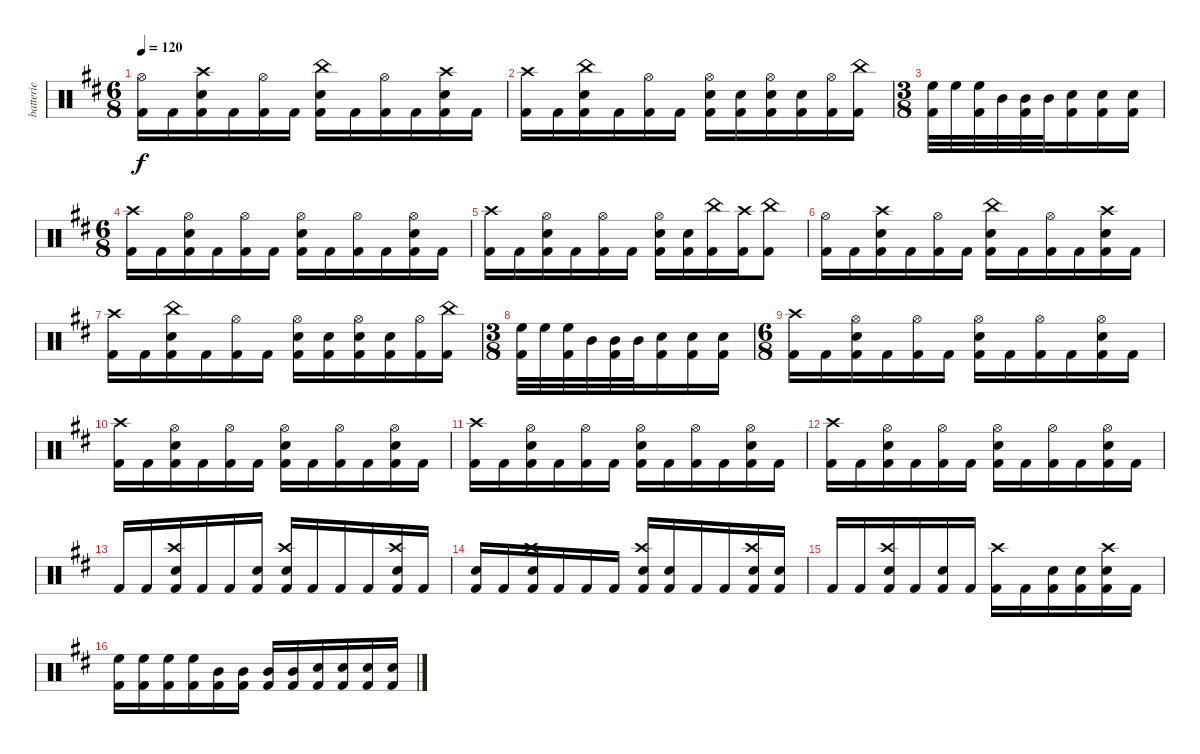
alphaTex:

\track ("batterie" "batterie") {instrument percussion}
\staff {score}
\articulation defaults
\ts (6 8)
\tempo 120
\clef neutral
\ks bminor
("Hi-Hat (open)" "Kick (hit) 2").16{dy f} "Kick (hit) 2".16 ("Crash high (hit)" "Snare (hit) 2" "Kick (hit) 2").16 "Kick (hit) 2".16 ("Hi-Hat (open)" "Kick (hit) 2").16 "Kick (hit) 2".16 ("China (hit)" "Snare (hit) 2" "Kick (hit) 2").16 "Kick (hit) 2".16 ("Hi-Hat (open)" "Kick (hit) 2").16 "Kick (hit) 2".16 ("Crash high (hit)" "Snare (hit) 2" "Kick (hit) 2").16 "Kick (hit) 2".16 |
("Crash high (hit)" "Kick (hit) 2").16 "Kick (hit) 2".16 ("China (hit)" "Snare (hit) 2" "Kick (hit) 2").16 "Kick (hit) 2".16 ("Hi-Hat (open)" "Kick (hit) 2").16 "Kick (hit) 2".16 ("Hi-Hat (open)" "Snare (hit) 2" "Kick (hit) 2").16 ("Snare (hit) 2" "Kick (hit) 2").16 ("Hi-Hat (open)" "Snare (hit) 2" "Kick (hit) 2").16 ("Snare (hit) 2" "Kick (hit) 2").16 ("Hi-Hat (open)" "Kick (hit) 2").16 ("China (hit)" "Kick (hit) 2").16 |
\ts (3 8)
("High Floor Tom (hit)" "Kick (hit) 2").32 "High Floor Tom (hit)".32 ("High Floor Tom (hit)" "Kick (hit) 2").32 "Mid Tom (hit)".32 ("Mid Tom (hit)" "Kick (hit) 2").32 "Mid Tom (hit)".32 ("Snare (hit) 2" "Kick (hit) 2").16 ("Snare (hit) 2" "Kick (hit) 2").16 ("Snare (hit) 2" "Kick (hit) 2").16 |
\ts (6 8)
("Crash high (hit)" "Kick (hit) 2").16 "Kick (hit) 2".16 ("Hi-Hat (open)" "Snare (hit) 2" "Kick (hit) 2").16 "Kick (hit) 2".16 ("Hi-Hat (open)" "Kick (hit) 2").16 "Kick (hit) 2".16 ("Hi-Hat (open)" "Snare (hit) 2" "Kick (hit) 2").16 "Kick (hit) 2".16 ("Hi-Hat (open)" "Kick (hit) 2").16 "Kick (hit) 2".16 ("Hi-Hat (open)" "Snare (hit) 2" "Kick (hit) 2").16 "Kick (hit) 2".16 |
("Crash high (hit)" "Kick (hit) 2").16 "Kick (hit) 2".16 ("Hi-Hat (open)" "Snare (hit) 2" "Kick (hit) 2").16 "Kick (hit) 2".16 ("Hi-Hat (open)" "Kick (hit) 2").16 "Kick (hit) 2".16 ("Hi-Hat (open)" "Snare (hit) 2" "Kick (hit) 2").16 ("Snare (hit) 2" "Kick (hit) 2").16 ("China (hit)" "Kick (hit) 2").16 ("Crash high (hit)" "Kick (hit) 2").16 ("China (hit)" "Kick (hit) 2").8 |
("Hi-Hat (open)" "Kick (hit) 2").16 "Kick (hit) 2".16 ("Crash high (hit)" "Snare (hit) 2" "Kick (hit) 2").16 "Kick (hit) 2".16 ("Hi-Hat (open)" "Kick (hit) 2").16 "Kick (hit) 2".16 ("China (hit)" "Snare (hit) 2" "Kick (hit) 2").16 "Kick (hit) 2".16 ("Hi-Hat (open)" "Kick (hit) 2").16 "Kick (hit) 2".16 ("Crash high (hit)" "Snare (hit) 2" "Kick (hit) 2").16 "Kick (hit) 2".16 |
("Crash high (hit)" "Kick (hit) 2").16 "Kick (hit) 2".16 ("China (hit)" "Snare (hit) 2" "Kick (hit) 2").16 "Kick (hit) 2".16 ("Hi-Hat (open)" "Kick (hit) 2").16 "Kick (hit) 2".16 ("Hi-Hat (open)" "Snare (hit) 2" "Kick (hit) 2").16 ("Snare (hit) 2" "Kick (hit) 2").16 ("Hi-Hat (open)" "Snare (hit) 2" "Kick (hit) 2").16 ("Snare (hit) 2" "Kick (hit) 2").16 ("Hi-Hat (open)" "Kick (hit) 2").16 ("China (hit)" "Kick (hit) 2").16 |
\ts (3 8)
("High Floor Tom (hit)" "Kick (hit) 2").32 "High Floor Tom (hit)".32 ("High Floor Tom (hit)" "Kick (hit) 2").32 "Mid Tom (hit)".32 ("Mid Tom (hit)" "Kick (hit) 2").32 "Mid Tom (hit)".32 ("Snare (hit) 2" "Kick (hit) 2").16 ("Snare (hit) 2" "Kick (hit) 2").16 ("Snare (hit) 2" "Kick (hit) 2").16 |
\ts (6 8)
("Crash high (hit)" "Kick (hit) 2").16 "Kick (hit) 2".16 ("Hi-Hat (open)" "Snare (hit) 2" "Kick (hit) 2").16 "Kick (hit) 2".16 ("Hi-Hat (open)" "Kick (hit) 2").16 "Kick (hit) 2".16 ("Hi-Hat (open)" "Snare (hit) 2" "Kick (hit) 2").16 "Kick (hit) 2".16 ("Hi-Hat (open)" "Kick (hit) 2").16 "Kick (hit) 2".16 ("Hi-Hat (open)" "Snare (hit) 2" "Kick (hit) 2").16 "Kick (hit) 2".16 |
("Crash high (hit)" "Kick (hit) 2").16 "Kick (hit) 2".16 ("Hi-Hat (open)" "Snare (hit) 2" "Kick (hit) 2").16 "Kick (hit) 2".16 ("Hi-Hat (open)" "Kick (hit) 2").16 "Kick (hit) 2".16 ("Hi-Hat (open)" "Snare (hit) 2" "Kick (hit) 2").16 "Kick (hit) 2".16 ("Hi-Hat (open)" "Kick (hit) 2").16 "Kick (hit) 2".16 ("Hi-Hat (open)" "Snare (hit) 2" "Kick (hit) 2").16 "Kick (hit) 2".16 |
("Crash high (hit)" "Kick (hit) 2").16 "Kick (hit) 2".16 ("Hi-Hat (open)" "Snare (hit) 2" "Kick (hit) 2").16 "Kick (hit) 2".16 ("Hi-Hat (open)" "Kick (hit) 2").16 "Kick (hit) 2".16 ("Hi-Hat (open)" "Snare (hit) 2" "Kick (hit) 2").16 "Kick (hit) 2".16 ("Hi-Hat (open)" "Kick (hit) 2").16 "Kick (hit) 2".16 ("Hi-Hat (open)" "Snare (hit) 2" "Kick (hit) 2").16 "Kick (hit) 2".16 |
("Crash high (hit)" "Kick (hit) 2").16 "Kick (hit) 2".16 ("Hi-Hat (open)" "Snare (hit) 2" "Kick (hit) 2").16 "Kick (hit) 2".16 ("Hi-Hat (open)" "Kick (hit) 2").16 "Kick (hit) 2".16 ("Hi-Hat (open)" "Snare (hit) 2" "Kick (hit) 2").16 "Kick (hit) 2".16 ("Hi-Hat (open)" "Kick (hit) 2").16 "Kick (hit) 2".16 ("Hi-Hat (open)" "Snare (hit) 2" "Kick (hit) 2").16 "Kick (hit) 2".16 |
"Kick (hit) 2".16 "Kick (hit) 2".16 ("Crash high (hit)" "Snare (hit) 2" "Kick (hit) 2").16 "Kick (hit) 2".16 "Kick (hit) 2".16 ("Snare (hit) 2" "Kick (hit) 2").16 ("Crash high (hit)" "Snare (hit) 2" "Kick (hit) 2").16 "Kick (hit) 2".16 "Kick (hit) 2".16 "Kick (hit) 2".16 ("Crash high (hit)" "Snare (hit) 2" "Kick (hit) 2").16 "Kick (hit) 2".16 |
("Snare (hit) 2" "Kick (hit) 2").16 "Kick (hit) 2".16 ("Crash high (hit)" "Snare (hit) 2" "Kick (hit) 2").16 "Kick (hit) 2".16 "Kick (hit) 2".16 "Kick (hit) 2".16 ("Crash high (hit)" "Snare (hit) 2" "Kick (hit) 2").16 ("Snare (hit) 2" "Kick (hit) 2").16 "Kick (hit) 2".16 "Kick (hit) 2".16 ("Crash high (hit)" "Snare (hit) 2" "Kick (hit) 2").16 ("Snare (hit) 2" "Kick (hit) 2").16 |
"Kick (hit) 2".16 "Kick (hit) 2".16 ("Crash high (hit)" "Snare (hit) 2" "Kick (hit) 2").16 "Kick (hit) 2".16 ("Snare (hit) 2" "Kick (hit) 2").16 "Kick (hit) 2".16 ("Crash high (hit)" "Kick (hit) 2").16 "Kick (hit) 2".16 ("Snare (hit) 2" "Kick (hit) 2").16 ("Snare (hit) 2" "Kick (hit) 2").16 ("Crash high (hit)" "Snare (hit) 2" "Kick (hit) 2").16 "Kick (hit) 2".16 |
("High Floor Tom (hit)" "Kick (hit) 2").16 ("High Floor Tom (hit)" "Kick (hit) 2").16 ("High Floor Tom (hit)" "Kick (hit) 2").16 ("High Floor Tom (hit)" "Kick (hit) 2").16 ("Mid Tom (hit)" "Kick (hit) 2").16 ("Mid Tom (hit)" "Kick (hit) 2").16 ("Mid Tom (hit)" "Kick (hit) 2").16 ("Mid Tom (hit)" "Kick (hit) 2").16 ("Snare (hit) 2" "Kick (hit) 2").16 ("Snare (hit) 2" "Kick (hit) 2").16 ("Snare (hit) 2" "Kick (hit) 2").16 ("Snare (hit) 2" "Kick (hit) 2").16
